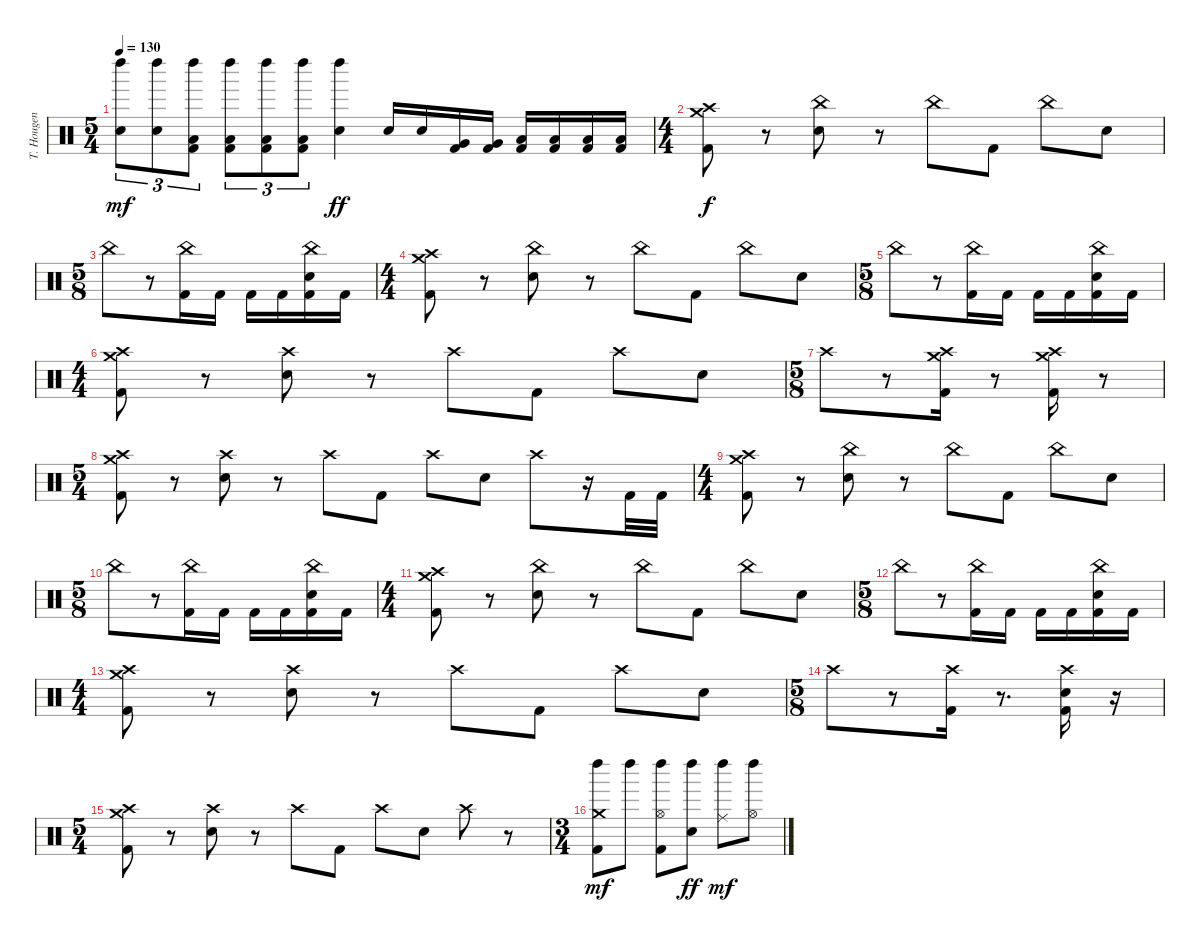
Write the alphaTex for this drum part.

\track ("T. Hougen - Drums" "T. Hougen ") {instrument percussion}
\staff {score}
\articulation defaults
\ts (5 4)
\tempo 130
\clef neutral
\ks c
("Left Maraca (hit)" "Electric Snare (hit)").8{tu (3 2) dy mf} ("Left Maraca (hit)" "Electric Snare (hit)").8{tu (3 2)} ("Left Maraca (hit)" "Low Tom (hit)" "Kick (hit) 2").8{tu (3 2)} ("Left Maraca (hit)" "Low Tom (hit)" "Kick (hit) 2").8{tu (3 2)} ("Left Maraca (hit)" "Low Tom (hit)" "Kick (hit) 2").8{tu (3 2)} ("Left Maraca (hit)" "Low Tom (hit)" "Kick (hit) 2").8{tu (3 2)} ("Left Maraca (hit)" "Electric Snare (hit)").4{dy ff} "Electric Snare (hit)".16 "Electric Snare (hit)".16 ("Very Low Tom (hit)" "Kick (hit) 2").16 ("Very Low Tom (hit)" "Kick (hit) 2").16 ("Low Floor Tom (hit)" "Kick (hit) 2").16 ("Low Floor Tom (hit)" "Kick (hit) 2").16 ("Low Floor Tom (hit)" "Kick (hit) 2").16 ("Low Floor Tom (hit)" "Kick (hit) 2").16 |
\ts (4 4)
("Crash medium (hit)" "Crash high (hit)" "Kick (hit) 2").8{dy f} r.8 ("China (hit)" "Electric Snare (hit)").8 r.8 "China (hit)".8 "Kick (hit) 2".8 "China (hit)".8 "Electric Snare (hit)".8 |
\ts (5 8)
"China (hit)".8 r.8 ("China (hit)" "Kick (hit) 2").16 "Kick (hit) 2".16 "Kick (hit) 2".16 "Kick (hit) 2".16 ("China (hit)" "Electric Snare (hit)" "Kick (hit) 2").16 "Kick (hit) 2".16 |
\ts (4 4)
("Crash medium (hit)" "Crash high (hit)" "Kick (hit) 2").8 r.8 ("China (hit)" "Electric Snare (hit)").8 r.8 "China (hit)".8 "Kick (hit) 2".8 "China (hit)".8 "Electric Snare (hit)".8 |
\ts (5 8)
"China (hit)".8 r.8 ("China (hit)" "Kick (hit) 2").16 "Kick (hit) 2".16 "Kick (hit) 2".16 "Kick (hit) 2".16 ("China (hit)" "Electric Snare (hit)" "Kick (hit) 2").16 "Kick (hit) 2".16 |
\ts (4 4)
("Crash medium (hit)" "Crash high (hit)" "Kick (hit) 2").8 r.8 ("Crash high (hit)" "Electric Snare (hit)").8 r.8 "Crash high (hit)".8 "Kick (hit) 2".8 "Crash high (hit)".8 "Electric Snare (hit)".8 |
\ts (5 8)
"Crash high (hit)".8 r.8 ("Crash medium (hit)" "Crash high (hit)" "Kick (hit) 2").16 r.8 ("Crash medium (hit)" "Crash high (hit)" "Kick (hit) 2").16 r.8 |
\ts (5 4)
("Crash medium (hit)" "Crash high (hit)" "Kick (hit) 2").8 r.8 ("Crash high (hit)" "Electric Snare (hit)").8 r.8 "Crash high (hit)".8 "Kick (hit) 2".8 "Crash high (hit)".8 "Electric Snare (hit)".8 "Crash high (hit)".8 r.16 "Kick (hit) 2".32 "Kick (hit) 2".32 |
\ts (4 4)
("Crash medium (hit)" "Crash high (hit)" "Kick (hit) 2").8 r.8 ("China (hit)" "Electric Snare (hit)").8 r.8 "China (hit)".8 "Kick (hit) 2".8 "China (hit)".8 "Electric Snare (hit)".8 |
\ts (5 8)
"China (hit)".8 r.8 ("China (hit)" "Kick (hit) 2").16 "Kick (hit) 2".16 "Kick (hit) 2".16 "Kick (hit) 2".16 ("China (hit)" "Electric Snare (hit)" "Kick (hit) 2").16 "Kick (hit) 2".16 |
\ts (4 4)
("Crash medium (hit)" "Crash high (hit)" "Kick (hit) 2").8 r.8 ("China (hit)" "Electric Snare (hit)").8 r.8 "China (hit)".8 "Kick (hit) 2".8 "China (hit)".8 "Electric Snare (hit)".8 |
\ts (5 8)
"China (hit)".8 r.8 ("China (hit)" "Kick (hit) 2").16 "Kick (hit) 2".16 "Kick (hit) 2".16 "Kick (hit) 2".16 ("China (hit)" "Electric Snare (hit)" "Kick (hit) 2").16 "Kick (hit) 2".16 |
\ts (4 4)
("Crash medium (hit)" "Crash high (hit)" "Kick (hit) 2").8 r.8 ("Crash high (hit)" "Electric Snare (hit)").8 r.8 "Crash high (hit)".8 "Kick (hit) 2".8 "Crash high (hit)".8 "Electric Snare (hit)".8 |
\ts (5 8)
"Crash high (hit)".8 r.8 ("Crash high (hit)" "Kick (hit) 2").16 r.8{d} ("Crash high (hit)" "Electric Snare (hit)" "Kick (hit) 2").16 r.16 |
\ts (5 4)
("Crash medium (hit)" "Crash high (hit)" "Kick (hit) 2").8 r.8 ("Crash high (hit)" "Electric Snare (hit)").8 r.8 "Crash high (hit)".8 "Kick (hit) 2".8 "Crash high (hit)".8 "Electric Snare (hit)".8 "Crash high (hit)".8 r.8 |
\ts (3 4)
("Left Maraca (hit)" "Crash medium (hit)" "Kick (hit) 2").8{dy mf} "Left Maraca (hit)".8 ("Left Maraca (hit)" "Hi-Hat (open)" "Kick (hit) 2").8 ("Left Maraca (hit)" "Electric Snare (hit)").8{dy ff} ("Left Maraca (hit)" "Ride (middle)").8{dy mf} ("Left Maraca (hit)" "Hi-Hat (open)").8
